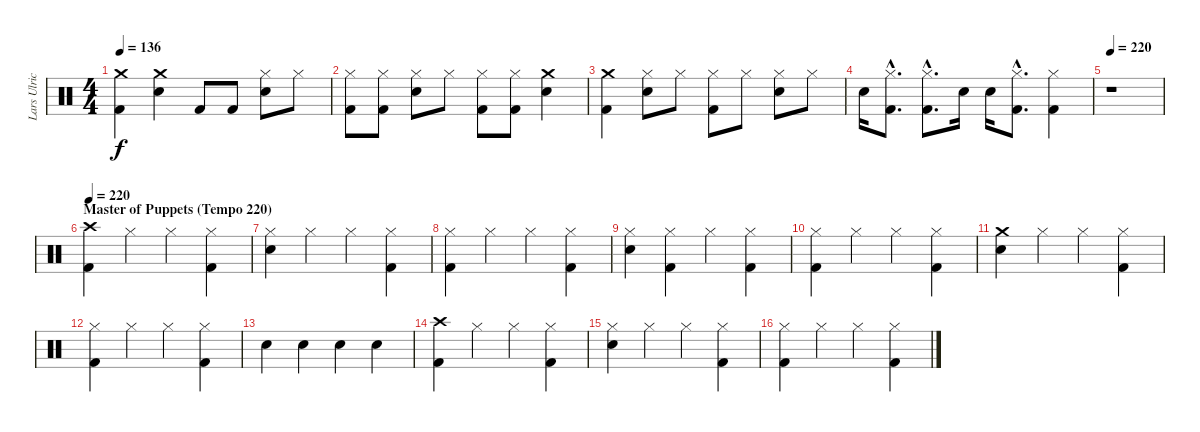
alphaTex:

\track ("Lars Ulrich (Drums)" "Lars Ulric") {instrument percussion}
\staff {score}
\articulation defaults
\ts (4 4)
\tempo 136
\clef neutral
\ks c
("Kick (hit) 2" "Crash medium (hit)").4{dy f} ("Snare (hit) 2" "Crash medium (hit)").4 "Kick (hit) 2".8 "Kick (hit) 2".8 ("Hi-Hat (closed)" "Snare (hit) 2").8 "Hi-Hat (closed)".8 |
("Hi-Hat (closed)" "Kick (hit) 2").8 ("Hi-Hat (closed)" "Kick (hit) 2").8 ("Snare (hit) 2" "Hi-Hat (closed)").8 "Hi-Hat (closed)".8 ("Kick (hit) 2" "Hi-Hat (closed)").8 ("Kick (hit) 2" "Hi-Hat (closed)").8 ("Crash medium (hit)" "Snare (hit) 2").4 |
("Kick (hit) 2" "Crash medium (hit)").4 ("Hi-Hat (closed)" "Snare (hit) 2").8 "Hi-Hat (closed)".8 ("Hi-Hat (closed)" "Kick (hit) 2").8 "Hi-Hat (closed)".8 ("Snare (hit) 2" "Hi-Hat (closed)").8 "Hi-Hat (closed)".8 |
"Snare (hit) 2".16 ("Kick (hit) 2"{hac} "Hi-Hat (closed)"{hac}).8{d} ("Kick (hit) 2"{hac} "Hi-Hat (closed)"{hac}).8{d} "Snare (hit) 2".16 "Snare (hit) 2".16 ("Kick (hit) 2"{hac} "Hi-Hat (closed)"{hac}).8{d} ("Hi-Hat (closed)" "Kick (hit) 2").4 |
\tempo 220
r.1 |
\section ("" "Master of Puppets (Tempo 220)")
\tempo 220
("Crash high (hit)" "Kick (hit) 2").4 "Hi-Hat (closed)".4 "Hi-Hat (closed)".4 ("Hi-Hat (closed)" "Kick (hit) 2").4 |
("Hi-Hat (closed)" "Snare (hit) 2").4 "Hi-Hat (closed)".4 "Hi-Hat (closed)".4 ("Hi-Hat (closed)" "Kick (hit) 2").4 |
("Hi-Hat (closed)" "Kick (hit) 2").4 "Hi-Hat (closed)".4 "Hi-Hat (closed)".4 ("Hi-Hat (closed)" "Kick (hit) 2").4 |
("Hi-Hat (closed)" "Snare (hit) 2").4 ("Hi-Hat (closed)" "Kick (hit) 2").4 "Hi-Hat (closed)".4 ("Hi-Hat (closed)" "Kick (hit) 2").4 |
("Hi-Hat (closed)" "Kick (hit) 2").4 "Hi-Hat (closed)".4 "Hi-Hat (closed)".4 ("Hi-Hat (closed)" "Kick (hit) 2").4 |
("Crash medium (hit)" "Snare (hit) 2").4 "Hi-Hat (closed)".4 "Hi-Hat (closed)".4 ("Hi-Hat (closed)" "Kick (hit) 2").4 |
("Hi-Hat (closed)" "Kick (hit) 2").4 "Hi-Hat (closed)".4 "Hi-Hat (closed)".4 ("Hi-Hat (closed)" "Kick (hit) 2").4 |
"Snare (hit) 2".4 "Snare (hit) 2".4 "Snare (hit) 2".4 "Snare (hit) 2".4 |
("Crash high (hit)" "Kick (hit) 2").4 "Hi-Hat (closed)".4 "Hi-Hat (closed)".4 ("Hi-Hat (closed)" "Kick (hit) 2").4 |
("Hi-Hat (closed)" "Snare (hit) 2").4 "Hi-Hat (closed)".4 "Hi-Hat (closed)".4 ("Hi-Hat (closed)" "Kick (hit) 2").4 |
("Hi-Hat (closed)" "Kick (hit) 2").4 "Hi-Hat (closed)".4 "Hi-Hat (closed)".4 ("Hi-Hat (closed)" "Kick (hit) 2").4
